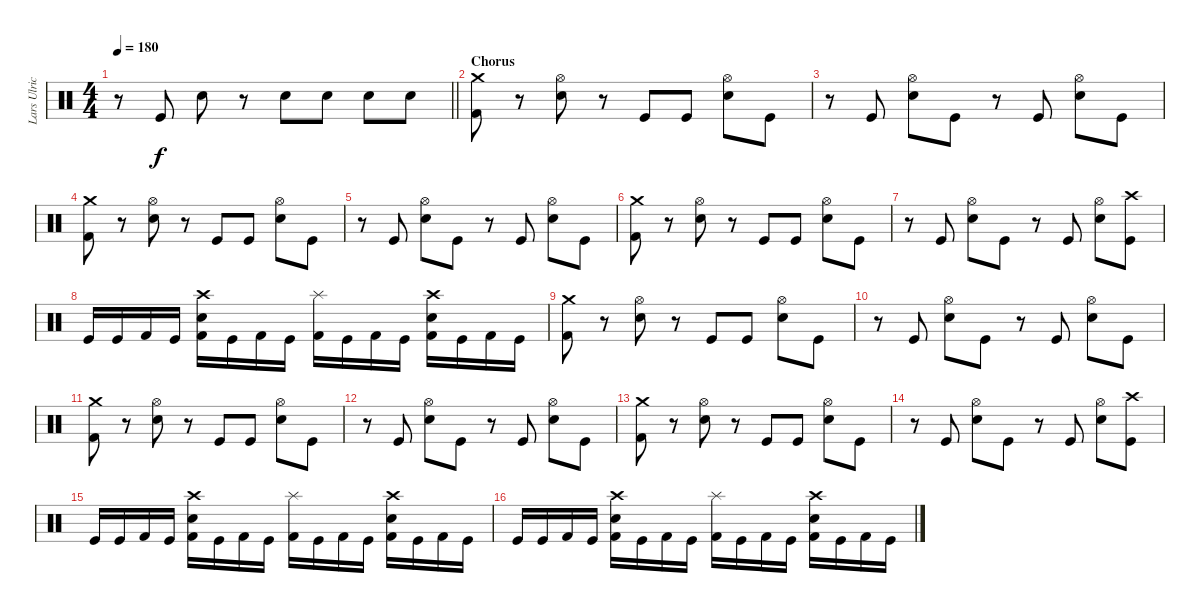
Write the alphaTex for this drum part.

\track ("Lars Ulrich" "Lars Ulric") {instrument percussion}
\staff {score}
\articulation defaults
\ts (4 4)
\tempo 180
\clef neutral
\barLineRight lightlight
\ks c
r.8{dy f} "Kick (hit)".8 "Electric Snare (hit)".8 r.8 "Electric Snare (hit)".8 "Electric Snare (hit)".8 "Electric Snare (hit)".8 "Electric Snare (hit)".8 |
\section ("" "Chorus")
("Crash medium (hit)" "Kick (hit) 2").8 r.8 ("Hi-Hat (open)" "Electric Snare (hit)").8 r.8 "Kick (hit)".8 "Kick (hit)".8 ("Hi-Hat (open)" "Electric Snare (hit)").8 "Kick (hit)".8 |
r.8 "Kick (hit)".8 ("Hi-Hat (open)" "Electric Snare (hit)").8 "Kick (hit)".8 r.8 "Kick (hit)".8 ("Hi-Hat (open)" "Electric Snare (hit)").8 "Kick (hit)".8 |
("Crash medium (hit)" "Kick (hit) 2").8 r.8 ("Hi-Hat (open)" "Electric Snare (hit)").8 r.8 "Kick (hit)".8 "Kick (hit)".8 ("Hi-Hat (open)" "Electric Snare (hit)").8 "Kick (hit)".8 |
r.8 "Kick (hit)".8 ("Hi-Hat (open)" "Electric Snare (hit)").8 "Kick (hit)".8 r.8 "Kick (hit)".8 ("Hi-Hat (open)" "Electric Snare (hit)").8 "Kick (hit)".8 |
("Crash medium (hit)" "Kick (hit) 2").8 r.8 ("Hi-Hat (open)" "Electric Snare (hit)").8 r.8 "Kick (hit)".8 "Kick (hit)".8 ("Hi-Hat (open)" "Electric Snare (hit)").8 "Kick (hit)".8 |
r.8 "Kick (hit)".8 ("Hi-Hat (open)" "Electric Snare (hit)").8 "Kick (hit)".8 r.8 "Kick (hit)".8 ("Hi-Hat (open)" "Electric Snare (hit)").8 ("Crash high (hit)" "Kick (hit)").8 |
"Kick (hit)".16 "Kick (hit)".16 "Kick (hit) 2".16 "Kick (hit)".16 ("Crash high (hit)" "Electric Snare (hit)" "Kick (hit) 2").16 "Kick (hit)".16 "Kick (hit) 2".16 "Kick (hit)".16 ("Splash (hit)" "Kick (hit) 2").16 "Kick (hit)".16 "Kick (hit) 2".16 "Kick (hit)".16 ("Crash high (hit)" "Electric Snare (hit)" "Kick (hit) 2").16 "Kick (hit)".16 "Kick (hit) 2".16 "Kick (hit)".16 |
("Crash medium (hit)" "Kick (hit) 2").8 r.8 ("Hi-Hat (open)" "Electric Snare (hit)").8 r.8 "Kick (hit)".8 "Kick (hit)".8 ("Hi-Hat (open)" "Electric Snare (hit)").8 "Kick (hit)".8 |
r.8 "Kick (hit)".8 ("Hi-Hat (open)" "Electric Snare (hit)").8 "Kick (hit)".8 r.8 "Kick (hit)".8 ("Hi-Hat (open)" "Electric Snare (hit)").8 "Kick (hit)".8 |
("Crash medium (hit)" "Kick (hit) 2").8 r.8 ("Hi-Hat (open)" "Electric Snare (hit)").8 r.8 "Kick (hit)".8 "Kick (hit)".8 ("Hi-Hat (open)" "Electric Snare (hit)").8 "Kick (hit)".8 |
r.8 "Kick (hit)".8 ("Hi-Hat (open)" "Electric Snare (hit)").8 "Kick (hit)".8 r.8 "Kick (hit)".8 ("Hi-Hat (open)" "Electric Snare (hit)").8 "Kick (hit)".8 |
("Crash medium (hit)" "Kick (hit) 2").8 r.8 ("Hi-Hat (open)" "Electric Snare (hit)").8 r.8 "Kick (hit)".8 "Kick (hit)".8 ("Hi-Hat (open)" "Electric Snare (hit)").8 "Kick (hit)".8 |
r.8 "Kick (hit)".8 ("Hi-Hat (open)" "Electric Snare (hit)").8 "Kick (hit)".8 r.8 "Kick (hit)".8 ("Hi-Hat (open)" "Electric Snare (hit)").8 ("Crash high (hit)" "Kick (hit)").8 |
"Kick (hit)".16 "Kick (hit)".16 "Kick (hit) 2".16 "Kick (hit)".16 ("Crash high (hit)" "Electric Snare (hit)" "Kick (hit) 2").16 "Kick (hit)".16 "Kick (hit) 2".16 "Kick (hit)".16 ("Splash (hit)" "Kick (hit) 2").16 "Kick (hit)".16 "Kick (hit) 2".16 "Kick (hit)".16 ("Crash high (hit)" "Electric Snare (hit)" "Kick (hit) 2").16 "Kick (hit)".16 "Kick (hit) 2".16 "Kick (hit)".16 |
"Kick (hit)".16 "Kick (hit)".16 "Kick (hit) 2".16 "Kick (hit)".16 ("Crash high (hit)" "Electric Snare (hit)" "Kick (hit) 2").16 "Kick (hit)".16 "Kick (hit) 2".16 "Kick (hit)".16 ("Splash (hit)" "Kick (hit) 2").16 "Kick (hit)".16 "Kick (hit) 2".16 "Kick (hit)".16 ("Crash high (hit)" "Electric Snare (hit)" "Kick (hit) 2").16 "Kick (hit)".16 "Kick (hit) 2".16 "Kick (hit)".16
